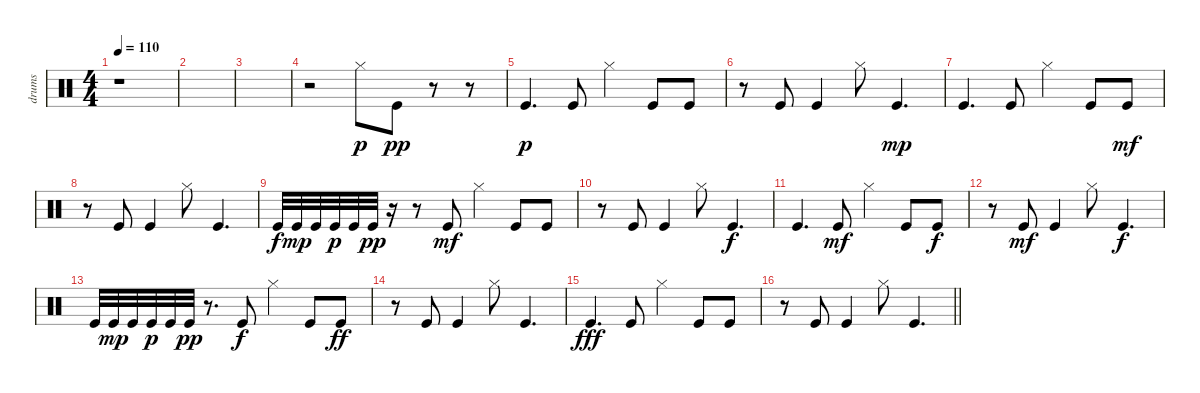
\track ("drums" "drums") {instrument percussion}
\staff {score}
\articulation defaults
\ts (4 4)
\tempo 110
\clef neutral
\ks c
r.1{dy p} |
|
|
r.2 "Hi-Hat (closed)".8 "Kick (hit)".8{dy pp} r.8 r.8 |
"Kick (hit)".4{d dy p} "Kick (hit)".8 "Hi-Hat (closed)".4 "Kick (hit)".8 "Kick (hit)".8 |
r.8 "Kick (hit)".8 "Kick (hit)".4 "Hi-Hat (closed)".8 "Kick (hit)".4{d dy mp} |
"Kick (hit)".4{d} "Kick (hit)".8 "Hi-Hat (closed)".4 "Kick (hit)".8 "Kick (hit)".8{dy mf} |
r.8 "Kick (hit)".8 "Kick (hit)".4 "Hi-Hat (closed)".8 "Kick (hit)".4{d} |
"Kick (hit)".32{dy f} "Kick (hit)".32{dy mp} "Kick (hit)".32 "Kick (hit)".32{dy p} "Kick (hit)".32 "Kick (hit)".32{dy pp} r.16 r.8 "Kick (hit)".8{dy mf} "Hi-Hat (closed)".4 "Kick (hit)".8 "Kick (hit)".8 |
r.8 "Kick (hit)".8 "Kick (hit)".4 "Hi-Hat (closed)".8 "Kick (hit)".4{d dy f} |
"Kick (hit)".4{d} "Kick (hit)".8{dy mf} "Hi-Hat (closed)".4 "Kick (hit)".8 "Kick (hit)".8{dy f} |
r.8 "Kick (hit)".8{dy mf} "Kick (hit)".4 "Hi-Hat (closed)".8 "Kick (hit)".4{d dy f} |
"Kick (hit)".32 "Kick (hit)".32{dy mp} "Kick (hit)".32 "Kick (hit)".32{dy p} "Kick (hit)".32 "Kick (hit)".32{dy pp} r.8{d} "Kick (hit)".8{dy f} "Hi-Hat (closed)".4 "Kick (hit)".8 "Kick (hit)".8{dy ff} |
r.8 "Kick (hit)".8 "Kick (hit)".4 "Hi-Hat (closed)".8 "Kick (hit)".4{d} |
"Kick (hit)".4{d dy fff} "Kick (hit)".8 "Hi-Hat (closed)".4 "Kick (hit)".8 "Kick (hit)".8 |
\barLineRight lightlight
r.8 "Kick (hit)".8 "Kick (hit)".4 "Hi-Hat (closed)".8 "Kick (hit)".4{d}
